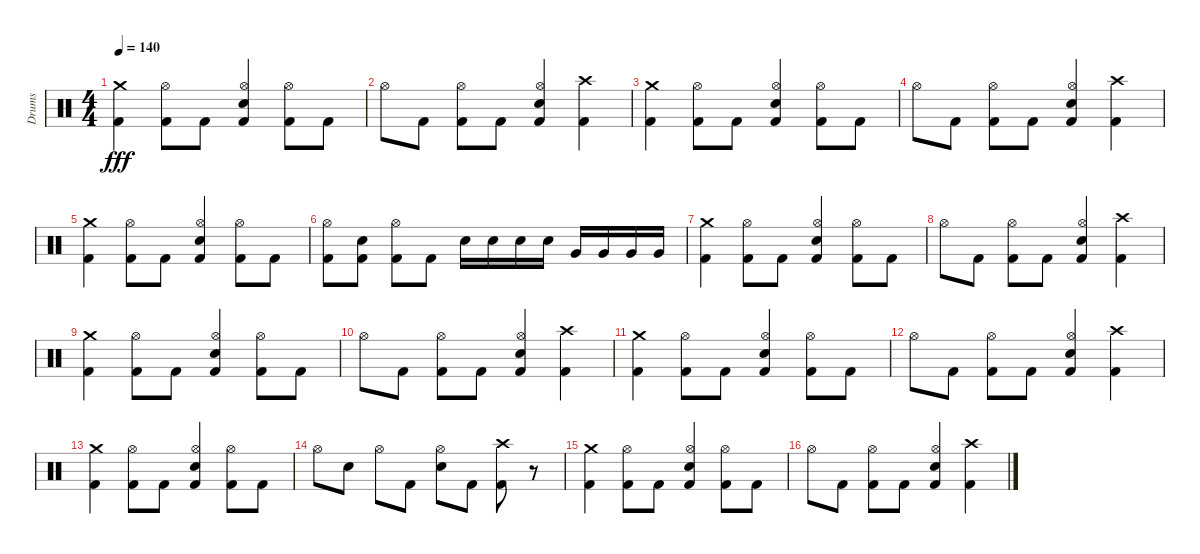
\track ("Drums" "Drums") {instrument percussion}
\staff {score}
\articulation defaults
\ts (4 4)
\tempo 140
\clef neutral
\ks c
("Kick (hit) 2" "Crash medium (hit)").4{dy fff} ("Kick (hit) 2" "Hi-Hat (open)").8 "Kick (hit) 2".8 ("Kick (hit) 2" "Electric Snare (hit)" "Hi-Hat (open)").4 ("Kick (hit) 2" "Hi-Hat (open)").8 "Kick (hit) 2".8 |
"Hi-Hat (open)".8 "Kick (hit) 2".8 ("Kick (hit) 2" "Hi-Hat (open)").8 "Kick (hit) 2".8 ("Kick (hit) 2" "Electric Snare (hit)" "Hi-Hat (open)").4 ("Kick (hit) 2" "Crash high (hit)").4 |
("Kick (hit) 2" "Crash medium (hit)").4 ("Kick (hit) 2" "Hi-Hat (open)").8 "Kick (hit) 2".8 ("Kick (hit) 2" "Electric Snare (hit)" "Hi-Hat (open)").4 ("Kick (hit) 2" "Hi-Hat (open)").8 "Kick (hit) 2".8 |
"Hi-Hat (open)".8 "Kick (hit) 2".8 ("Kick (hit) 2" "Hi-Hat (open)").8 "Kick (hit) 2".8 ("Kick (hit) 2" "Electric Snare (hit)" "Hi-Hat (open)").4 ("Kick (hit) 2" "Crash high (hit)").4 |
("Kick (hit) 2" "Crash medium (hit)").4 ("Kick (hit) 2" "Hi-Hat (open)").8 "Kick (hit) 2".8 ("Kick (hit) 2" "Electric Snare (hit)" "Hi-Hat (open)").4 ("Kick (hit) 2" "Hi-Hat (open)").8 "Kick (hit) 2".8 |
("Kick (hit) 2" "Hi-Hat (open)").8 ("Kick (hit) 2" "Electric Snare (hit)").8 ("Kick (hit) 2" "Hi-Hat (open)").8 "Kick (hit) 2".8 "Electric Snare (hit)".16 "Electric Snare (hit)".16 "Electric Snare (hit)".16 "Electric Snare (hit)".16 "Very Low Tom (hit)".16 "Very Low Tom (hit)".16 "Very Low Tom (hit)".16 "Very Low Tom (hit)".16 |
("Kick (hit) 2" "Crash medium (hit)").4 ("Kick (hit) 2" "Hi-Hat (open)").8 "Kick (hit) 2".8 ("Kick (hit) 2" "Electric Snare (hit)" "Hi-Hat (open)").4 ("Kick (hit) 2" "Hi-Hat (open)").8 "Kick (hit) 2".8 |
"Hi-Hat (open)".8 "Kick (hit) 2".8 ("Kick (hit) 2" "Hi-Hat (open)").8 "Kick (hit) 2".8 ("Kick (hit) 2" "Electric Snare (hit)" "Hi-Hat (open)").4 ("Kick (hit) 2" "Crash high (hit)").4 |
("Kick (hit) 2" "Crash medium (hit)").4 ("Kick (hit) 2" "Hi-Hat (open)").8 "Kick (hit) 2".8 ("Kick (hit) 2" "Electric Snare (hit)" "Hi-Hat (open)").4 ("Kick (hit) 2" "Hi-Hat (open)").8 "Kick (hit) 2".8 |
"Hi-Hat (open)".8 "Kick (hit) 2".8 ("Kick (hit) 2" "Hi-Hat (open)").8 "Kick (hit) 2".8 ("Kick (hit) 2" "Electric Snare (hit)" "Hi-Hat (open)").4 ("Kick (hit) 2" "Crash high (hit)").4 |
("Kick (hit) 2" "Crash medium (hit)").4 ("Kick (hit) 2" "Hi-Hat (open)").8 "Kick (hit) 2".8 ("Kick (hit) 2" "Electric Snare (hit)" "Hi-Hat (open)").4 ("Kick (hit) 2" "Hi-Hat (open)").8 "Kick (hit) 2".8 |
"Hi-Hat (open)".8 "Kick (hit) 2".8 ("Kick (hit) 2" "Hi-Hat (open)").8 "Kick (hit) 2".8 ("Kick (hit) 2" "Electric Snare (hit)" "Hi-Hat (open)").4 ("Kick (hit) 2" "Crash high (hit)").4 |
("Kick (hit) 2" "Crash medium (hit)").4 ("Kick (hit) 2" "Hi-Hat (open)").8 "Kick (hit) 2".8 ("Kick (hit) 2" "Electric Snare (hit)" "Hi-Hat (open)").4 ("Kick (hit) 2" "Hi-Hat (open)").8 "Kick (hit) 2".8 |
"Hi-Hat (open)".8 "Electric Snare (hit)".8 "Hi-Hat (open)".8 "Kick (hit) 2".8 ("Electric Snare (hit)" "Hi-Hat (open)").8 "Kick (hit) 2".8 ("Kick (hit) 2" "Crash high (hit)").8 r.8 |
("Kick (hit) 2" "Crash medium (hit)").4 ("Kick (hit) 2" "Hi-Hat (open)").8 "Kick (hit) 2".8 ("Kick (hit) 2" "Electric Snare (hit)" "Hi-Hat (open)").4 ("Kick (hit) 2" "Hi-Hat (open)").8 "Kick (hit) 2".8 |
"Hi-Hat (open)".8 "Kick (hit) 2".8 ("Kick (hit) 2" "Hi-Hat (open)").8 "Kick (hit) 2".8 ("Kick (hit) 2" "Electric Snare (hit)" "Hi-Hat (open)").4 ("Kick (hit) 2" "Crash high (hit)").4
